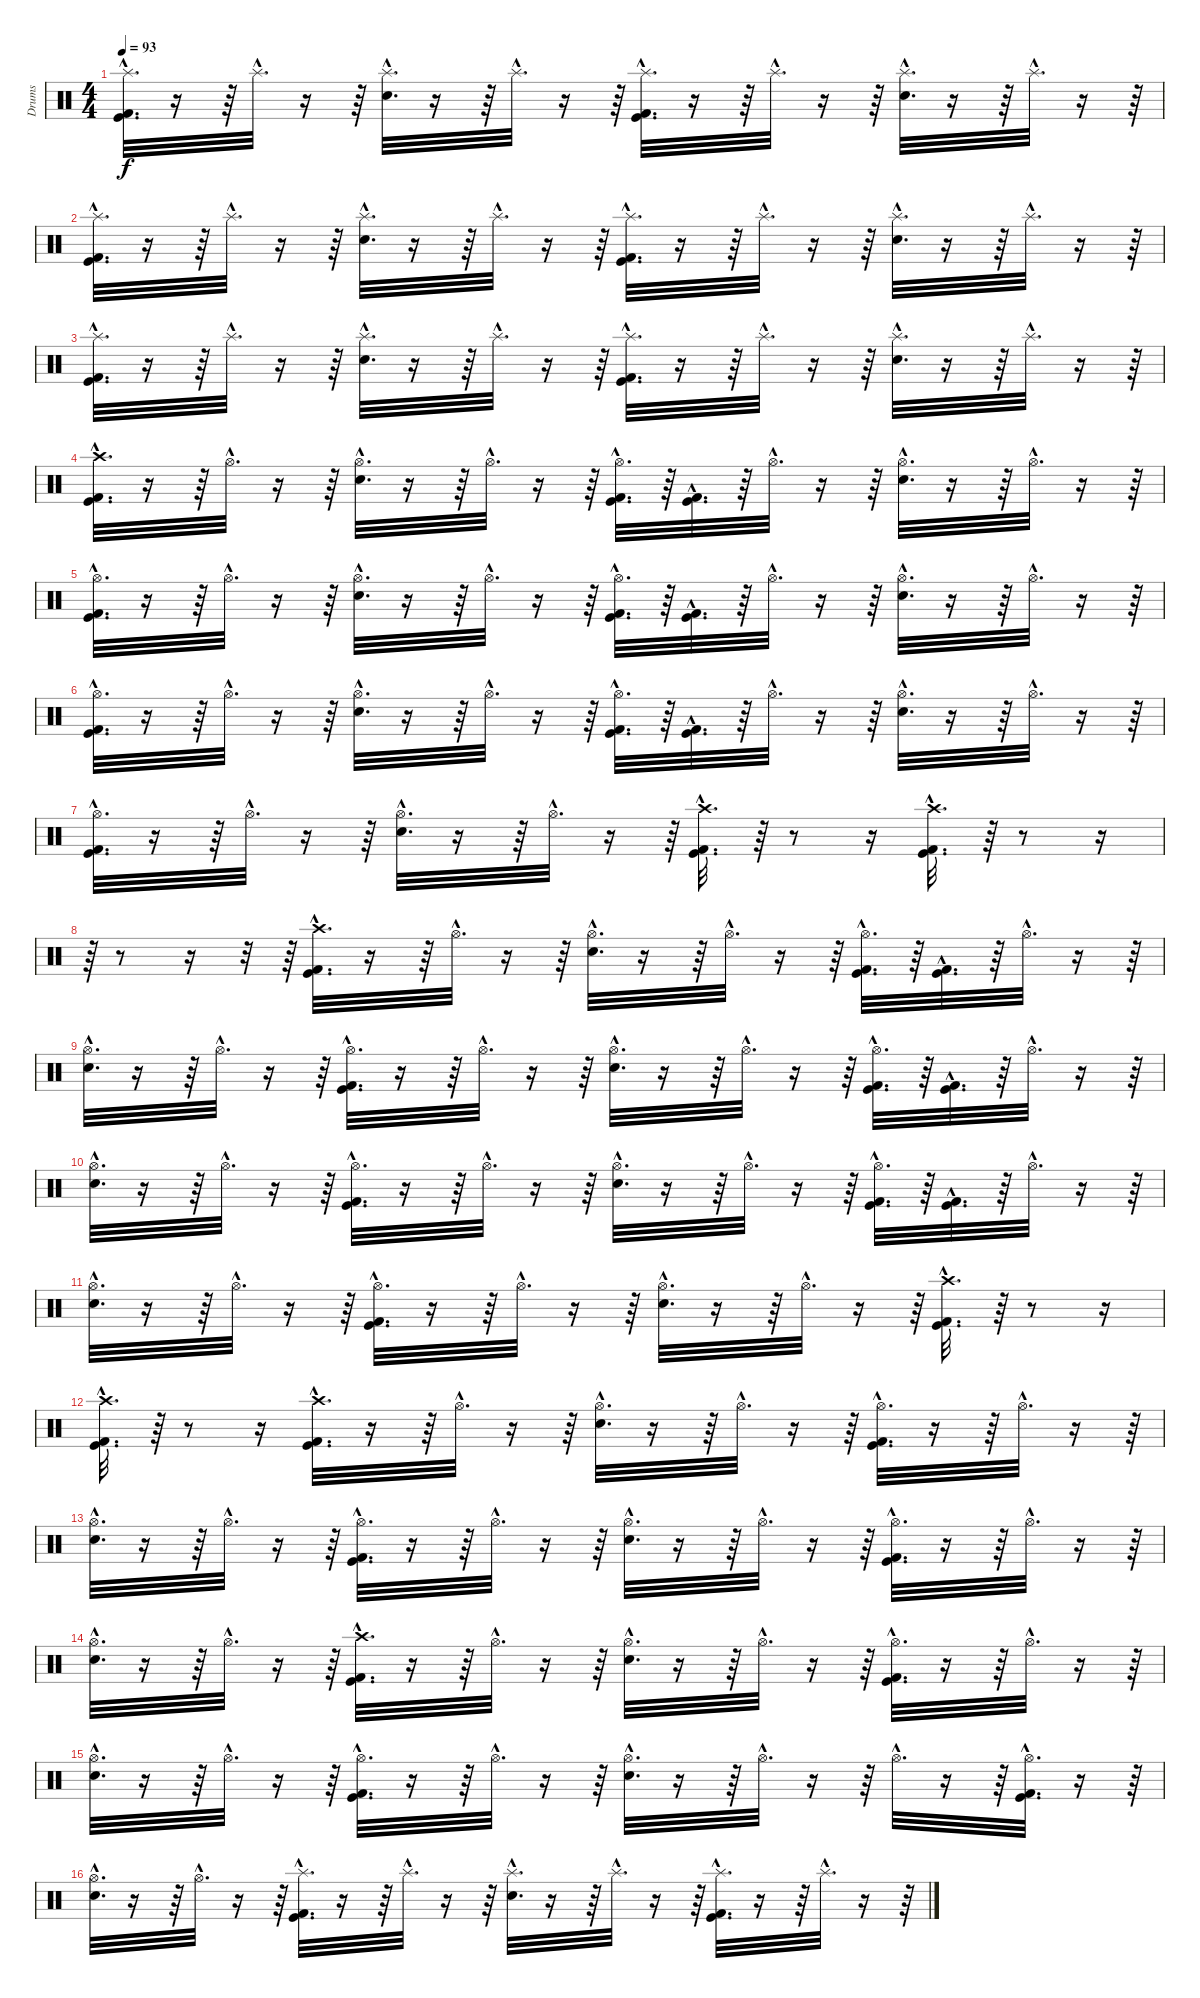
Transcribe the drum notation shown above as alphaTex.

\track ("Drums" "Drums") {instrument percussion}
\staff {score}
\articulation defaults
\ts (4 4)
\tempo 93
\clef neutral
\ks c
("Kick (hit)"{hac} "Kick (hit) 2"{hac} "Splash (hit)"{hac}).32{d dy f} r.16 r.64 "Splash (hit)"{hac}.32{d} r.16 r.64 ("Snare (hit) 2"{hac} "Splash (hit)"{hac}).32{d} r.16 r.64 "Splash (hit)"{hac}.32{d} r.16 r.64 ("Kick (hit)"{hac} "Kick (hit) 2"{hac} "Splash (hit)"{hac}).32{d} r.16 r.64 "Splash (hit)"{hac}.32{d} r.16 r.64 ("Snare (hit) 2"{hac} "Splash (hit)"{hac}).32{d} r.16 r.64 "Splash (hit)"{hac}.32{d} r.16 r.64 |
("Kick (hit)"{hac} "Kick (hit) 2"{hac} "Splash (hit)"{hac}).32{d} r.16 r.64 "Splash (hit)"{hac}.32{d} r.16 r.64 ("Splash (hit)"{hac} "Snare (hit) 2"{hac}).32{d} r.16 r.64 "Splash (hit)"{hac}.32{d} r.16 r.64 ("Kick (hit)"{hac} "Splash (hit)"{hac} "Kick (hit) 2"{hac}).32{d} r.16 r.64 "Splash (hit)"{hac}.32{d} r.16 r.64 ("Splash (hit)"{hac} "Snare (hit) 2"{hac}).32{d} r.16 r.64 "Splash (hit)"{hac}.32{d} r.16 r.64 |
("Kick (hit)"{hac} "Splash (hit)"{hac} "Kick (hit) 2"{hac}).32{d} r.16 r.64 "Splash (hit)"{hac}.32{d} r.16 r.64 ("Splash (hit)"{hac} "Snare (hit) 2"{hac}).32{d} r.16 r.64 "Splash (hit)"{hac}.32{d} r.16 r.64 ("Kick (hit)"{hac} "Splash (hit)"{hac} "Kick (hit) 2"{hac}).32{d} r.16 r.64 "Splash (hit)"{hac}.32{d} r.16 r.64 ("Splash (hit)"{hac} "Snare (hit) 2"{hac}).32{d} r.16 r.64 "Splash (hit)"{hac}.32{d} r.16 r.64 |
("Kick (hit)"{hac} "Crash high (hit)"{hac} "Kick (hit) 2"{hac}).32{d} r.16 r.64 "Hi-Hat (open)"{hac}.32{d} r.16 r.64 ("Hi-Hat (open)"{hac} "Snare (hit) 2"{hac}).32{d} r.16 r.64 "Hi-Hat (open)"{hac}.32{d} r.16 r.64 ("Kick (hit)"{hac} "Hi-Hat (open)"{hac} "Kick (hit) 2"{hac}).32{d} r.64 ("Kick (hit)"{hac} "Kick (hit) 2"{hac}).32{d} r.64 "Hi-Hat (open)"{hac}.32{d} r.16 r.64 ("Hi-Hat (open)"{hac} "Snare (hit) 2"{hac}).32{d} r.16 r.64 "Hi-Hat (open)"{hac}.32{d} r.16 r.64 |
("Kick (hit)"{hac} "Hi-Hat (open)"{hac} "Kick (hit) 2"{hac}).32{d} r.16 r.64 "Hi-Hat (open)"{hac}.32{d} r.16 r.64 ("Hi-Hat (open)"{hac} "Snare (hit) 2"{hac}).32{d} r.16 r.64 "Hi-Hat (open)"{hac}.32{d} r.16 r.64 ("Kick (hit)"{hac} "Hi-Hat (open)"{hac} "Kick (hit) 2"{hac}).32{d} r.64 ("Kick (hit)"{hac} "Kick (hit) 2"{hac}).32{d} r.64 "Hi-Hat (open)"{hac}.32{d} r.16 r.64 ("Hi-Hat (open)"{hac} "Snare (hit) 2"{hac}).32{d} r.16 r.64 "Hi-Hat (open)"{hac}.32{d} r.16 r.64 |
("Kick (hit)"{hac} "Hi-Hat (open)"{hac} "Kick (hit) 2"{hac}).32{d} r.16 r.64 "Hi-Hat (open)"{hac}.32{d} r.16 r.64 ("Hi-Hat (open)"{hac} "Snare (hit) 2"{hac}).32{d} r.16 r.64 "Hi-Hat (open)"{hac}.32{d} r.16 r.64 ("Kick (hit)"{hac} "Hi-Hat (open)"{hac} "Kick (hit) 2"{hac}).32{d} r.64 ("Kick (hit)"{hac} "Kick (hit) 2"{hac}).32{d} r.64 "Hi-Hat (open)"{hac}.32{d} r.16 r.64 ("Hi-Hat (open)"{hac} "Snare (hit) 2"{hac}).32{d} r.16 r.64 "Hi-Hat (open)"{hac}.32{d} r.16 r.64 |
("Kick (hit)"{hac} "Kick (hit) 2"{hac} "Hi-Hat (open)"{hac}).32{d} r.16 r.64 "Hi-Hat (open)"{hac}.32{d} r.16 r.64 ("Snare (hit) 2"{hac} "Hi-Hat (open)"{hac}).32{d} r.16 r.64 "Hi-Hat (open)"{hac}.32{d} r.16 r.64 ("Kick (hit)"{hac} "Crash high (hit)"{hac} "Kick (hit) 2"{hac}).32{d} r.64 r.8 r.16 ("Kick (hit)"{hac} "Crash high (hit)"{hac} "Kick (hit) 2"{hac}).32{d} r.64 r.8 r.16 |
r.64 r.8 r.16 r.32 r.64 ("Kick (hit)"{hac} "Kick (hit) 2"{hac} "Crash high (hit)"{hac}).32{d} r.16 r.64 "Hi-Hat (open)"{hac}.32{d} r.16 r.64 ("Snare (hit) 2"{hac} "Hi-Hat (open)"{hac}).32{d} r.16 r.64 "Hi-Hat (open)"{hac}.32{d} r.16 r.64 ("Kick (hit)"{hac} "Kick (hit) 2"{hac} "Hi-Hat (open)"{hac}).32{d} r.64 ("Kick (hit)"{hac} "Kick (hit) 2"{hac}).32{d} r.64 "Hi-Hat (open)"{hac}.32{d} r.16 r.64 |
("Snare (hit) 2"{hac} "Hi-Hat (open)"{hac}).32{d} r.16 r.64 "Hi-Hat (open)"{hac}.32{d} r.16 r.64 ("Kick (hit)"{hac} "Kick (hit) 2"{hac} "Hi-Hat (open)"{hac}).32{d} r.16 r.64 "Hi-Hat (open)"{hac}.32{d} r.16 r.64 ("Snare (hit) 2"{hac} "Hi-Hat (open)"{hac}).32{d} r.16 r.64 "Hi-Hat (open)"{hac}.32{d} r.16 r.64 ("Kick (hit)"{hac} "Kick (hit) 2"{hac} "Hi-Hat (open)"{hac}).32{d} r.64 ("Kick (hit)"{hac} "Kick (hit) 2"{hac}).32{d} r.64 "Hi-Hat (open)"{hac}.32{d} r.16 r.64 |
("Snare (hit) 2"{hac} "Hi-Hat (open)"{hac}).32{d} r.16 r.64 "Hi-Hat (open)"{hac}.32{d} r.16 r.64 ("Kick (hit)"{hac} "Kick (hit) 2"{hac} "Hi-Hat (open)"{hac}).32{d} r.16 r.64 "Hi-Hat (open)"{hac}.32{d} r.16 r.64 ("Snare (hit) 2"{hac} "Hi-Hat (open)"{hac}).32{d} r.16 r.64 "Hi-Hat (open)"{hac}.32{d} r.16 r.64 ("Kick (hit)"{hac} "Kick (hit) 2"{hac} "Hi-Hat (open)"{hac}).32{d} r.64 ("Kick (hit)"{hac} "Kick (hit) 2"{hac}).32{d} r.64 "Hi-Hat (open)"{hac}.32{d} r.16 r.64 |
("Snare (hit) 2"{hac} "Hi-Hat (open)"{hac}).32{d} r.16 r.64 "Hi-Hat (open)"{hac}.32{d} r.16 r.64 ("Kick (hit)"{hac} "Kick (hit) 2"{hac} "Hi-Hat (open)"{hac}).32{d} r.16 r.64 "Hi-Hat (open)"{hac}.32{d} r.16 r.64 ("Hi-Hat (open)"{hac} "Snare (hit) 2"{hac}).32{d} r.16 r.64 "Hi-Hat (open)"{hac}.32{d} r.16 r.64 ("Kick (hit)"{hac} "Crash high (hit)"{hac} "Kick (hit) 2"{hac}).32{d} r.64 r.8 r.16 |
("Kick (hit)"{hac} "Crash high (hit)"{hac} "Kick (hit) 2"{hac}).32{d} r.64 r.8 r.16 ("Kick (hit)"{hac} "Crash high (hit)"{hac} "Kick (hit) 2"{hac}).32{d} r.16 r.64 "Hi-Hat (open)"{hac}.32{d} r.16 r.64 ("Hi-Hat (open)"{hac} "Snare (hit) 2"{hac}).32{d} r.16 r.64 "Hi-Hat (open)"{hac}.32{d} r.16 r.64 ("Kick (hit)"{hac} "Hi-Hat (open)"{hac} "Kick (hit) 2"{hac}).32{d} r.16 r.64 "Hi-Hat (open)"{hac}.32{d} r.16 r.64 |
("Hi-Hat (open)"{hac} "Snare (hit) 2"{hac}).32{d} r.16 r.64 "Hi-Hat (open)"{hac}.32{d} r.16 r.64 ("Kick (hit)"{hac} "Hi-Hat (open)"{hac} "Kick (hit) 2"{hac}).32{d} r.16 r.64 "Hi-Hat (open)"{hac}.32{d} r.16 r.64 ("Hi-Hat (open)"{hac} "Snare (hit) 2"{hac}).32{d} r.16 r.64 "Hi-Hat (open)"{hac}.32{d} r.16 r.64 ("Kick (hit)"{hac} "Kick (hit) 2"{hac} "Hi-Hat (open)"{hac}).32{d} r.16 r.64 "Hi-Hat (open)"{hac}.32{d} r.16 r.64 |
("Hi-Hat (open)"{hac} "Snare (hit) 2"{hac}).32{d} r.16 r.64 "Hi-Hat (open)"{hac}.32{d} r.16 r.64 ("Kick (hit)"{hac} "Crash high (hit)"{hac} "Kick (hit) 2"{hac}).32{d} r.16 r.64 "Hi-Hat (open)"{hac}.32{d} r.16 r.64 ("Hi-Hat (open)"{hac} "Snare (hit) 2"{hac}).32{d} r.16 r.64 "Hi-Hat (open)"{hac}.32{d} r.16 r.64 ("Kick (hit)"{hac} "Hi-Hat (open)"{hac} "Kick (hit) 2"{hac}).32{d} r.16 r.64 "Hi-Hat (open)"{hac}.32{d} r.16 r.64 |
("Hi-Hat (open)"{hac} "Snare (hit) 2"{hac}).32{d} r.16 r.64 "Hi-Hat (open)"{hac}.32{d} r.16 r.64 ("Kick (hit)"{hac} "Hi-Hat (open)"{hac} "Kick (hit) 2"{hac}).32{d} r.16 r.64 "Hi-Hat (open)"{hac}.32{d} r.16 r.64 ("Hi-Hat (open)"{hac} "Snare (hit) 2"{hac}).32{d} r.16 r.64 "Hi-Hat (open)"{hac}.32{d} r.16 r.64 "Hi-Hat (open)"{hac}.32{d} r.16 r.64 ("Kick (hit)"{hac} "Hi-Hat (open)"{hac} "Kick (hit) 2"{hac}).32{d} r.16 r.64 |
("Hi-Hat (open)"{hac} "Snare (hit) 2"{hac}).32{d} r.16 r.64 "Hi-Hat (open)"{hac}.32{d} r.16 r.64 ("Kick (hit)"{hac} "Kick (hit) 2"{hac} "Splash (hit)"{hac}).32{d} r.16 r.64 "Splash (hit)"{hac}.32{d} r.16 r.64 ("Snare (hit) 2"{hac} "Splash (hit)"{hac}).32{d} r.16 r.64 "Splash (hit)"{hac}.32{d} r.16 r.64 ("Kick (hit)"{hac} "Kick (hit) 2"{hac} "Splash (hit)"{hac}).32{d} r.16 r.64 "Splash (hit)"{hac}.32{d} r.16 r.64
